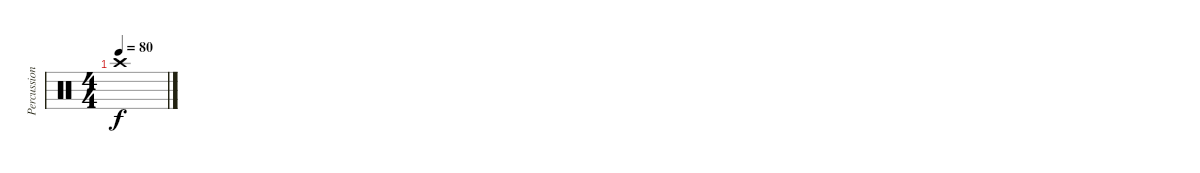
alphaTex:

\track ("Percussion" "Percussion") {instrument percussion}
\staff {score}
\articulation defaults
\ts (4 4)
\tempo 80
\clef neutral
\ks c "Crash high (hit)".1{dy f}
